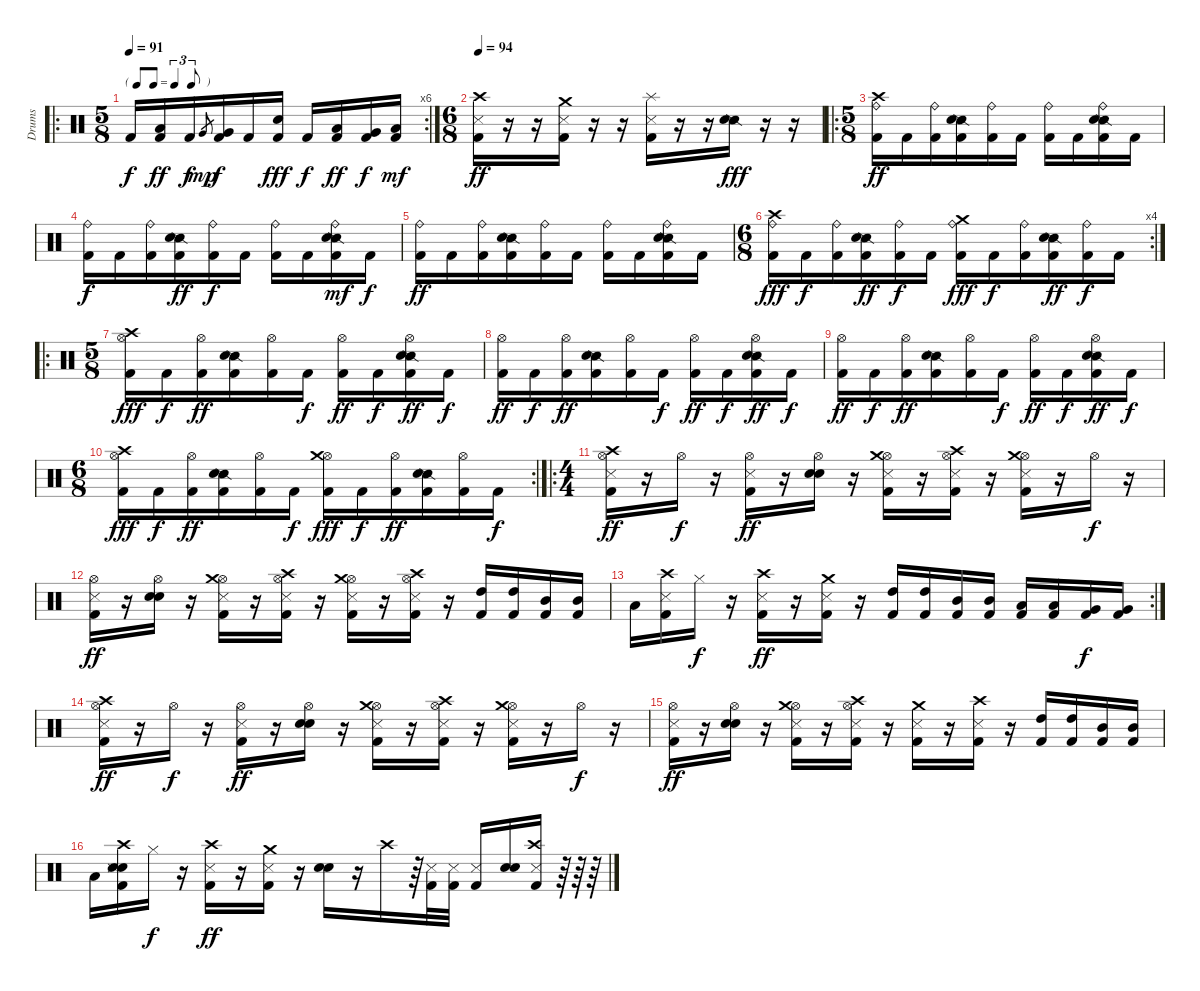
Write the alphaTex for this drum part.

\track ("Drums" "Drums") {instrument percussion}
\staff {score}
\articulation defaults
\ro
\rc 6
\ts (5 8)
\tf triplet8th
\tempo 91
\clef neutral
\ks c "Kick (hit) 2".16{dy f}
("Low Tom (hit)" "Kick (hit) 2").16{dy ff} "Kick (hit) 2".16{dy f} "Very Low Tom (hit)".8{gr dy mp} ("Very Low Tom (hit)" "Kick (hit) 2").16{dy f} "Kick (hit) 2".16 ("Electric Snare (hit)" "Kick (hit) 2").16{dy fff} "Kick (hit) 2".16{dy f} ("Low Tom (hit)" "Kick (hit) 2").16{dy ff} ("Very Low Tom (hit)" "Kick (hit) 2").16{dy f} ("Low Floor Tom (hit)" "Kick (hit) 2").16{dy mf} |
\ts (6 8)
\tempo 94
("Crash high (hit)" "Metronome (hit)" "Kick (hit) 2").16{dy ff} r.16 r.16 ("Crash medium (hit)" "Metronome (hit)" "Kick (hit) 2").16 r.16 r.16 ("Splash (hit)" "Metronome (hit)" "Kick (hit) 2").16 r.16 r.16 ("Snare (side stick) 2" "Electric Snare (hit)").16{dy fff} r.16 r.16 |
\ro
\ts (5 8)
("Ride (bell)" "Crash high (hit)" "Kick (hit) 2").16{dy ff} "Kick (hit) 2".16 ("Ride (bell)" "Kick (hit) 2").16 ("Snare (side stick) 2" "Electric Snare (hit)" "Kick (hit) 2").16 ("Ride (bell)" "Kick (hit) 2").16 "Kick (hit) 2".16 ("Ride (bell)" "Kick (hit) 2").16 "Kick (hit) 2".16 ("Ride (bell)" "Snare (side stick) 2" "Electric Snare (hit)" "Kick (hit) 2").16 "Kick (hit) 2".16 |
("Ride (bell)" "Kick (hit) 2").16{dy f} "Kick (hit) 2".16 ("Ride (bell)" "Kick (hit) 2").16 ("Snare (side stick) 2" "Electric Snare (hit)" "Kick (hit) 2").16{dy ff} ("Ride (bell)" "Kick (hit) 2").16{dy f} "Kick (hit) 2".16 ("Ride (bell)" "Kick (hit) 2").16 "Kick (hit) 2".16 ("Ride (bell)" "Snare (side stick) 2" "Electric Snare (hit)" "Kick (hit) 2").16{dy mf} "Kick (hit) 2".16{dy f} |
("Ride (bell)" "Kick (hit) 2").16{dy ff} "Kick (hit) 2".16 ("Ride (bell)" "Kick (hit) 2").16 ("Snare (side stick) 2" "Electric Snare (hit)" "Kick (hit) 2").16 ("Ride (bell)" "Kick (hit) 2").16 "Kick (hit) 2".16 ("Ride (bell)" "Kick (hit) 2").16 "Kick (hit) 2".16 ("Ride (bell)" "Snare (side stick) 2" "Electric Snare (hit)" "Kick (hit) 2").16 "Kick (hit) 2".16 |
\rc 4
\ts (6 8)
("Ride (bell)" "Crash high (hit)" "Kick (hit) 2").16{dy fff} "Kick (hit) 2".16{dy f} ("Ride (bell)" "Kick (hit) 2").16 ("Snare (side stick) 2" "Electric Snare (hit)" "Kick (hit) 2").16{dy ff} ("Ride (bell)" "Kick (hit) 2").16{dy f} "Kick (hit) 2".16 ("Ride (bell)" "Crash medium (hit)" "Kick (hit) 2").16{dy fff} "Kick (hit) 2".16{dy f} ("Ride (bell)" "Kick (hit) 2").16 ("Snare (side stick) 2" "Electric Snare (hit)" "Kick (hit) 2").16{dy ff} ("Ride (bell)" "Kick (hit) 2").16{dy f} "Kick (hit) 2".16 |
\ro
\ts (5 8)
("Hi-Hat (open)" "Crash high (hit)" "Kick (hit) 2").16{dy fff} "Kick (hit) 2".16{dy f} ("Hi-Hat (open)" "Kick (hit) 2").16{dy ff} ("Snare (side stick) 2" "Electric Snare (hit)" "Kick (hit) 2").16 ("Hi-Hat (open)" "Kick (hit) 2").16 "Kick (hit) 2".16{dy f} ("Hi-Hat (open)" "Kick (hit) 2").16{dy ff} "Kick (hit) 2".16{dy f} ("Hi-Hat (open)" "Snare (side stick) 2" "Electric Snare (hit)" "Kick (hit) 2").16{dy ff} "Kick (hit) 2".16{dy f} |
("Hi-Hat (open)" "Kick (hit) 2").16{dy ff} "Kick (hit) 2".16{dy f} ("Hi-Hat (open)" "Kick (hit) 2").16{dy ff} ("Snare (side stick) 2" "Electric Snare (hit)" "Kick (hit) 2").16 ("Hi-Hat (open)" "Kick (hit) 2").16 "Kick (hit) 2".16{dy f} ("Hi-Hat (open)" "Kick (hit) 2").16{dy ff} "Kick (hit) 2".16{dy f} ("Hi-Hat (open)" "Snare (side stick) 2" "Electric Snare (hit)" "Kick (hit) 2").16{dy ff} "Kick (hit) 2".16{dy f} |
("Hi-Hat (open)" "Kick (hit) 2").16{dy ff} "Kick (hit) 2".16{dy f} ("Hi-Hat (open)" "Kick (hit) 2").16{dy ff} ("Snare (side stick) 2" "Electric Snare (hit)" "Kick (hit) 2").16 ("Hi-Hat (open)" "Kick (hit) 2").16 "Kick (hit) 2".16{dy f} ("Hi-Hat (open)" "Kick (hit) 2").16{dy ff} "Kick (hit) 2".16{dy f} ("Hi-Hat (open)" "Snare (side stick) 2" "Electric Snare (hit)" "Kick (hit) 2").16{dy ff} "Kick (hit) 2".16{dy f} |
\rc 2
\ts (6 8)
("Hi-Hat (open)" "Crash high (hit)" "Kick (hit) 2").16{dy fff} "Kick (hit) 2".16{dy f} ("Hi-Hat (open)" "Kick (hit) 2").16{dy ff} ("Snare (side stick) 2" "Electric Snare (hit)" "Kick (hit) 2").16 ("Hi-Hat (open)" "Kick (hit) 2").16 "Kick (hit) 2".16{dy f} ("Hi-Hat (open)" "Crash medium (hit)" "Kick (hit) 2").16{dy fff} "Kick (hit) 2".16{dy f} ("Hi-Hat (open)" "Kick (hit) 2").16{dy ff} ("Snare (side stick) 2" "Electric Snare (hit)" "Kick (hit) 2").16 ("Hi-Hat (open)" "Kick (hit) 2").16 "Kick (hit) 2".16{dy f} |
\ro
\ts (4 4)
("Hi-Hat (open)" "Crash high (hit)" "Metronome (hit)" "Kick (hit) 2").16{dy ff} r.16 "Hi-Hat (open)".16{dy f} r.16 ("Hi-Hat (open)" "Metronome (hit)" "Kick (hit) 2").16{dy ff} r.16 ("Hi-Hat (open)" "Electric Snare (hit)" "Metronome (bell)").16 r.16 ("Hi-Hat (open)" "Crash medium (hit)" "Metronome (hit)" "Kick (hit) 2").16 r.16 ("Hi-Hat (open)" "Crash high (hit)" "Metronome (hit)" "Kick (hit) 2").16 r.16 ("Hi-Hat (open)" "Crash medium (hit)" "Metronome (hit)" "Kick (hit) 2").16 r.16 "Hi-Hat (open)".16{dy f} r.16 |
("Hi-Hat (open)" "Metronome (hit)" "Kick (hit) 2").16{dy ff} r.16 ("Hi-Hat (open)" "Electric Snare (hit)" "Metronome (bell)").16 r.16 ("Hi-Hat (open)" "Crash medium (hit)" "Metronome (hit)" "Kick (hit) 2").16 r.16 ("Hi-Hat (open)" "Crash high (hit)" "Metronome (hit)" "Kick (hit) 2").16 r.16 ("Hi-Hat (open)" "Crash medium (hit)" "Metronome (hit)" "Kick (hit) 2").16 r.16 ("Hi-Hat (open)" "Crash high (hit)" "Metronome (hit)" "Kick (hit) 2").16 r.16 ("High Tom (hit)" "Kick (hit) 2").16 ("High Tom (hit)" "Kick (hit) 2").16 ("Mid Tom (hit)" "Kick (hit) 2").16 ("Mid Tom (hit)" "Kick (hit) 2").16 |
\rc 2 "Low Tom (hit)".16
("Crash high (hit)" "Metronome (hit)" "Kick (hit) 2").16 "Hi-Hat (closed)".16{dy f} r.16 ("Crash high (hit)" "Metronome (hit)" "Kick (hit) 2").16{dy ff} r.16 ("Crash medium (hit)" "Metronome (hit)" "Kick (hit) 2").16 r.16 ("High Tom (hit)" "Kick (hit) 2").16 ("High Tom (hit)" "Kick (hit) 2").16 ("Mid Tom (hit)" "Kick (hit) 2").16 ("Mid Tom (hit)" "Kick (hit) 2").16 ("Low Tom (hit)" "Kick (hit) 2").16 ("Low Tom (hit)" "Kick (hit) 2").16 ("Very Low Tom (hit)" "Kick (hit) 2").16{dy f} ("Very Low Tom (hit)" "Kick (hit) 2").16 |
("Hi-Hat (open)" "Crash high (hit)" "Metronome (hit)" "Kick (hit) 2").16{dy ff} r.16 "Hi-Hat (open)".16{dy f} r.16 ("Hi-Hat (open)" "Metronome (hit)" "Kick (hit) 2").16{dy ff} r.16 ("Hi-Hat (open)" "Electric Snare (hit)" "Metronome (bell)").16 r.16 ("Hi-Hat (open)" "Crash medium (hit)" "Metronome (hit)" "Kick (hit) 2").16 r.16 ("Hi-Hat (open)" "Crash high (hit)" "Metronome (hit)" "Kick (hit) 2").16 r.16 ("Hi-Hat (open)" "Crash medium (hit)" "Metronome (hit)" "Kick (hit) 2").16 r.16 "Hi-Hat (open)".16{dy f} r.16 |
("Hi-Hat (open)" "Metronome (hit)" "Kick (hit) 2").16{dy ff} r.16 ("Hi-Hat (open)" "Electric Snare (hit)" "Metronome (bell)").16 r.16 ("Hi-Hat (open)" "Crash medium (hit)" "Metronome (hit)" "Kick (hit) 2").16 r.16 ("Hi-Hat (open)" "Crash high (hit)" "Metronome (hit)" "Kick (hit) 2").16 r.16 ("Crash medium (hit)" "Metronome (hit)" "Kick (hit) 2").16 r.16 ("Crash high (hit)" "Metronome (hit)" "Kick (hit) 2").16 r.16 ("High Tom (hit)" "Kick (hit) 2").16 ("High Tom (hit)" "Kick (hit) 2").16 ("Mid Tom (hit)" "Kick (hit) 2").16 ("Mid Tom (hit)" "Kick (hit) 2").16 |
"Low Tom (hit)".16 ("Crash high (hit)" "Electric Snare (hit)" "Metronome (bell)" "Metronome (hit)" "Kick (hit) 2").16 "Hi-Hat (closed)".16{dy f} r.16 ("Crash high (hit)" "Metronome (hit)" "Kick (hit) 2").16{dy ff} r.16 ("Crash medium (hit)" "Metronome (hit)" "Kick (hit) 2").16 r.16 ("Electric Snare (hit)" "Metronome (bell)").16 r.16 "Crash high (hit)".16 r.64 ("Metronome (hit)" "Kick (hit) 2").32 ("Metronome (hit)" "Kick (hit) 2").32 ("Metronome (hit)" "Kick (hit) 2").16 ("Electric Snare (hit)" "Metronome (bell)").16 ("Crash high (hit)" "Metronome (hit)" "Kick (hit) 2").16 r.64 r.64 r.64
